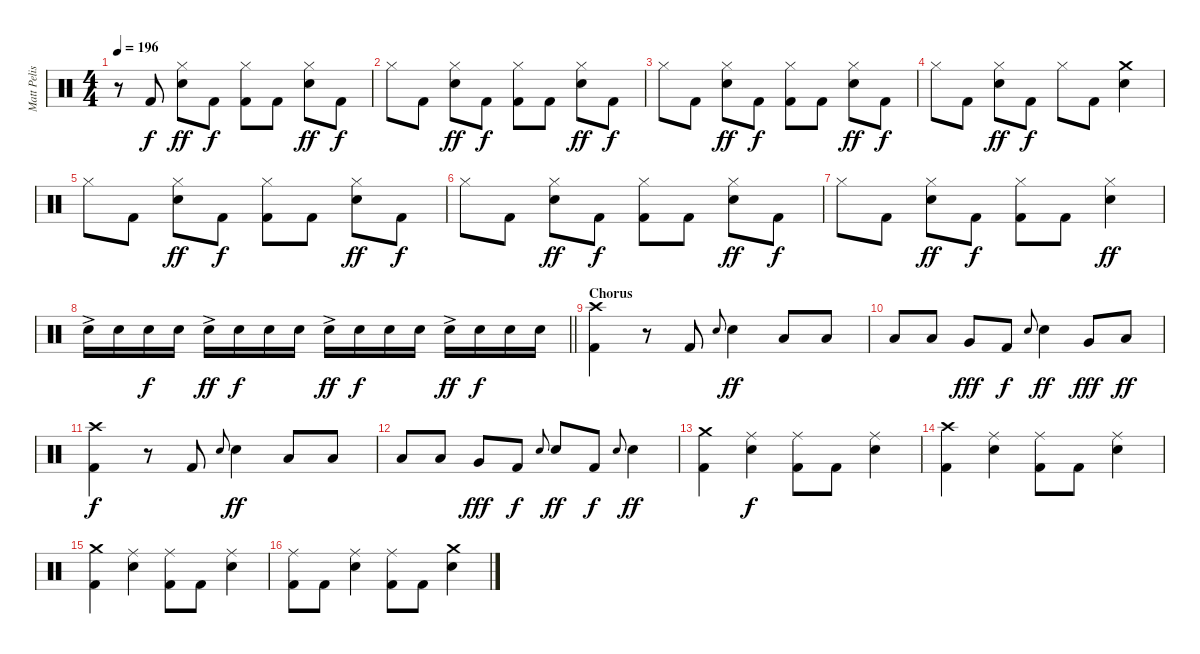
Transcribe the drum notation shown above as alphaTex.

\track ("Matt Pelissier" "Matt Pelis") {instrument percussion}
\staff {score}
\articulation defaults
\ts (4 4)
\tempo 196
\clef neutral
\ks c
r.8{dy f} "Kick (hit) 2".8 ("Hi-Hat (closed)" "Snare (hit) 2").8{dy ff} "Kick (hit) 2".8{dy f} ("Hi-Hat (closed)" "Kick (hit) 2").8 "Kick (hit) 2".8 ("Hi-Hat (closed)" "Snare (hit) 2").8{dy ff} "Kick (hit) 2".8{dy f} |
"Hi-Hat (closed)".8 "Kick (hit) 2".8 ("Hi-Hat (closed)" "Snare (hit) 2").8{dy ff} "Kick (hit) 2".8{dy f} ("Hi-Hat (closed)" "Kick (hit) 2").8 "Kick (hit) 2".8 ("Hi-Hat (closed)" "Snare (hit) 2").8{dy ff} "Kick (hit) 2".8{dy f} |
"Hi-Hat (closed)".8 "Kick (hit) 2".8 ("Hi-Hat (closed)" "Snare (hit) 2").8{dy ff} "Kick (hit) 2".8{dy f} ("Hi-Hat (closed)" "Kick (hit) 2").8 "Kick (hit) 2".8 ("Hi-Hat (closed)" "Snare (hit) 2").8{dy ff} "Kick (hit) 2".8{dy f} |
"Hi-Hat (closed)".8 "Kick (hit) 2".8 ("Hi-Hat (closed)" "Snare (hit) 2").8{dy ff} "Kick (hit) 2".8{dy f} "Hi-Hat (closed)".8 "Kick (hit) 2".8 ("Crash medium (hit)" "Snare (hit) 2").4 |
"Hi-Hat (closed)".8 "Kick (hit) 2".8 ("Hi-Hat (closed)" "Snare (hit) 2").8{dy ff} "Kick (hit) 2".8{dy f} ("Hi-Hat (closed)" "Kick (hit) 2").8 "Kick (hit) 2".8 ("Hi-Hat (closed)" "Snare (hit) 2").8{dy ff} "Kick (hit) 2".8{dy f} |
"Hi-Hat (closed)".8 "Kick (hit) 2".8 ("Hi-Hat (closed)" "Snare (hit) 2").8{dy ff} "Kick (hit) 2".8{dy f} ("Hi-Hat (closed)" "Kick (hit) 2").8 "Kick (hit) 2".8 ("Hi-Hat (closed)" "Snare (hit) 2").8{dy ff} "Kick (hit) 2".8{dy f} |
"Hi-Hat (closed)".8 "Kick (hit) 2".8 ("Hi-Hat (closed)" "Snare (hit) 2").8{dy ff} "Kick (hit) 2".8{dy f} ("Hi-Hat (closed)" "Kick (hit) 2").8 "Kick (hit) 2".8 ("Hi-Hat (closed)" "Snare (hit) 2").4{dy ff} |
\barLineRight lightlight "Snare (hit) 2"{ac}.16 "Snare (hit) 2".16 "Snare (hit) 2".16{dy f} "Snare (hit) 2".16 "Snare (hit) 2"{ac}.16{dy ff} "Snare (hit) 2".16{dy f} "Snare (hit) 2".16 "Snare (hit) 2".16 "Snare (hit) 2"{ac}.16{dy ff} "Snare (hit) 2".16{dy f} "Snare (hit) 2".16 "Snare (hit) 2".16 "Snare (hit) 2"{ac}.16{dy ff} "Snare (hit) 2".16{dy f} "Snare (hit) 2".16 "Snare (hit) 2".16
|
\section ("" "Chorus")
("Crash high (hit)" "Kick (hit) 2").4 r.8 "Kick (hit) 2".8 "Snare (hit) 2".8{gr onbeat} "Snare (hit) 2".4{dy ff} "Low Tom (hit)".8 "Low Tom (hit)".8 |
"Low Tom (hit)".8 "Low Tom (hit)".8 "Very Low Tom (hit)".8{dy fff} "Kick (hit) 2".8{dy f} "Snare (hit) 2".8{gr onbeat} "Snare (hit) 2".4{dy ff} "Very Low Tom (hit)".8{dy fff} "Low Tom (hit)".8{dy ff} |
("Crash high (hit)" "Kick (hit) 2").4{dy f} r.8 "Kick (hit) 2".8 "Snare (hit) 2".8{gr onbeat} "Snare (hit) 2".4{dy ff} "Low Tom (hit)".8 "Low Tom (hit)".8 |
"Low Tom (hit)".8 "Low Tom (hit)".8 "Very Low Tom (hit)".8{dy fff} "Kick (hit) 2".8{dy f} "Snare (hit) 2".8{gr onbeat} "Snare (hit) 2".8{dy ff} "Kick (hit) 2".8{dy f} "Snare (hit) 2".8{gr onbeat} "Snare (hit) 2".4{dy ff} |
("Crash medium (hit)" "Kick (hit) 2").4 ("Ride (middle)" "Snare (hit) 2").4{dy f} ("Ride (middle)" "Kick (hit) 2").8 "Kick (hit) 2".8 ("Ride (middle)" "Snare (hit) 2").4 |
("Crash high (hit)" "Kick (hit) 2").4 ("Ride (middle)" "Snare (hit) 2").4 ("Ride (middle)" "Kick (hit) 2").8 "Kick (hit) 2".8 ("Ride (middle)" "Snare (hit) 2").4 |
("Crash medium (hit)" "Kick (hit) 2").4 ("Ride (middle)" "Snare (hit) 2").4 ("Ride (middle)" "Kick (hit) 2").8 "Kick (hit) 2".8 ("Ride (middle)" "Snare (hit) 2").4 |
("Ride (middle)" "Kick (hit) 2").8 "Kick (hit) 2".8 ("Ride (middle)" "Snare (hit) 2").4 ("Ride (middle)" "Kick (hit) 2").8 "Kick (hit) 2".8 ("Crash medium (hit)" "Snare (hit) 2").4
